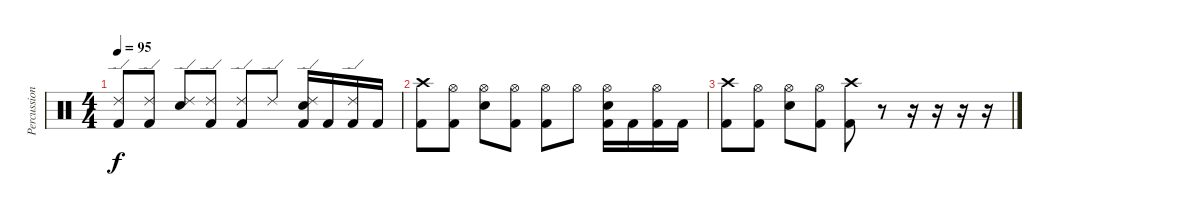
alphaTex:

\track ("Percussions" "Percussion") {instrument percussion}
\staff {score}
\articulation defaults
\ts (4 4)
\tempo 95
\clef neutral
\ks c
("Ride (edge) 2" "Kick (hit) 2").8{dy f} ("Ride (edge) 2" "Kick (hit) 2").8 ("Ride (edge) 2" "Snare (hit) 2").8 ("Ride (edge) 2" "Kick (hit) 2").8 ("Ride (edge) 2" "Kick (hit) 2").8 "Ride (edge) 2".8 ("Snare (hit) 2" "Ride (edge) 2" "Kick (hit) 2").16 "Kick (hit) 2".16 ("Ride (edge) 2" "Kick (hit) 2").16 "Kick (hit) 2".16 |
("Crash high (hit)" "Kick (hit) 2").8 ("Hi-Hat (open)" "Kick (hit) 2").8 ("Hi-Hat (open)" "Snare (hit) 2").8 ("Hi-Hat (open)" "Kick (hit) 2").8 ("Hi-Hat (open)" "Kick (hit) 2").8 "Hi-Hat (open)".8 ("Snare (hit) 2" "Hi-Hat (open)" "Kick (hit) 2").16 "Kick (hit) 2".16 ("Hi-Hat (open)" "Kick (hit) 2").16 "Kick (hit) 2".16 |
("Crash high (hit)" "Kick (hit) 2").8 ("Hi-Hat (open)" "Kick (hit) 2").8 ("Hi-Hat (open)" "Snare (hit) 2").8 ("Hi-Hat (open)" "Kick (hit) 2").8 ("Crash high (hit)" "Kick (hit) 2").8 r.8 r.16 r.16 r.16 r.16
